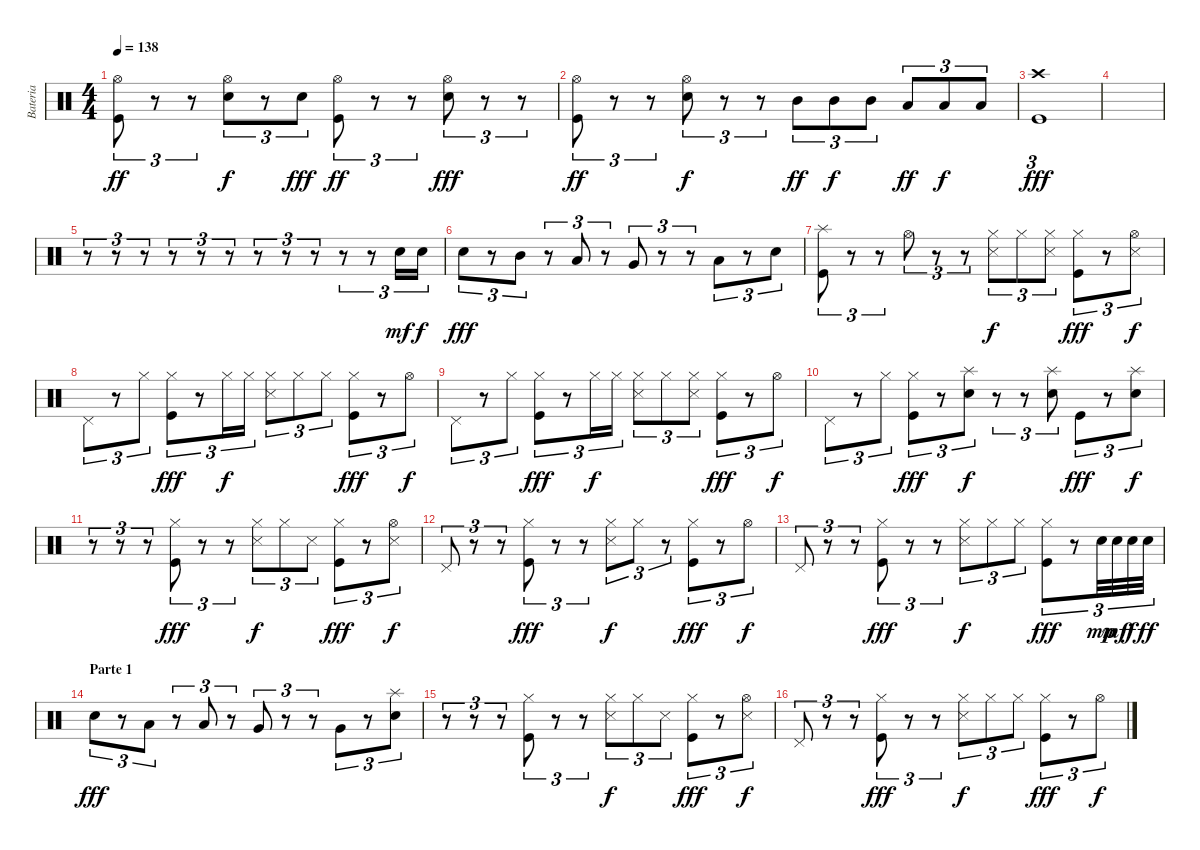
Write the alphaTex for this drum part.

\track ("Bateria" "Bateria") {instrument percussion}
\staff {score}
\articulation defaults
\ts (4 4)
\tempo 138
\clef neutral
\ks c
("Kick (hit)" "Hi-Hat (open)").8{tu (3 2) dy ff} r.8{tu (3 2)} r.8{tu (3 2)} ("Electric Snare (hit)" "Hi-Hat (open)").8{tu (3 2) dy f} r.8{tu (3 2)} "Electric Snare (hit)".8{tu (3 2) dy fff} ("Kick (hit)" "Hi-Hat (open)").8{tu (3 2) dy ff} r.8{tu (3 2)} r.8{tu (3 2)} ("Electric Snare (hit)" "Hi-Hat (open)").8{tu (3 2) dy fff} r.8{tu (3 2)} r.8{tu (3 2)} |
("Kick (hit)" "Hi-Hat (open)").8{tu (3 2) dy ff} r.8{tu (3 2)} r.8{tu (3 2)} ("Electric Snare (hit)" "Hi-Hat (open)").8{tu (3 2) dy f} r.8{tu (3 2)} r.8{tu (3 2)} "Mid Tom (hit)".8{tu (3 2) dy ff} "Mid Tom (hit)".8{tu (3 2) dy f} "Mid Tom (hit)".8{tu (3 2)} "Low Tom (hit)".8{tu (3 2) dy ff} "Low Tom (hit)".8{tu (3 2) dy f} "Low Tom (hit)".8{tu (3 2)} |
("Kick (hit)" "Crash high (hit)").1{tu (3 2) dy fff} |
|
r.8{tu (3 2)} r.8{tu (3 2)} r.8{tu (3 2)} r.8{tu (3 2)} r.8{tu (3 2)} r.8{tu (3 2)} r.8{tu (3 2)} r.8{tu (3 2)} r.8{tu (3 2)} r.8{tu (3 2)} r.8{tu (3 2)} "Electric Snare (hit)".16{tu (3 2) dy mf} "Electric Snare (hit)".16{tu (3 2) dy f} |
"Electric Snare (hit)".8{tu (3 2) dy fff} r.8{tu (3 2)} "Mid Tom (hit)".8{tu (3 2)} r.8{tu (3 2)} "Low Tom (hit)".8{tu (3 2)} r.8{tu (3 2)} "Very Low Tom (hit)".8{tu (3 2)} r.8{tu (3 2)} r.8{tu (3 2)} "Low Floor Tom (hit)".8{tu (3 2)} r.8{tu (3 2)} "Electric Snare (hit)".8{tu (3 2)} |
("Kick (hit)" "Splash (hit)").8{tu (3 2)} r.8{tu (3 2)} r.8{tu (3 2)} "Hi-Hat (open)".8{tu (3 2)} r.8{tu (3 2)} r.8{tu (3 2)} ("Snare (side stick) 3" "Hi-Hat (closed)").8{tu (3 2) dy f} "Hi-Hat (closed)".8{tu (3 2)} ("Snare (side stick) 3" "Hi-Hat (closed)").8{tu (3 2)} ("Kick (hit)" "Hi-Hat (closed)").8{tu (3 2) dy fff} r.8{tu (3 2)} ("Snare (side stick) 3" "Hi-Hat (open)").8{tu (3 2) dy f} |
"Pedal Hi-Hat (hit)".8{tu (3 2)} r.8{tu (3 2)} "Hi-Hat (closed)".8{tu (3 2)} ("Kick (hit)" "Hi-Hat (closed)").8{tu (3 2) dy fff} r.8{tu (3 2)} "Hi-Hat (closed)".16{tu (3 2) dy f} "Hi-Hat (closed)".16{tu (3 2)} ("Snare (side stick) 3" "Hi-Hat (closed)").8{tu (3 2)} "Hi-Hat (closed)".8{tu (3 2)} "Hi-Hat (closed)".8{tu (3 2)} ("Kick (hit)" "Hi-Hat (closed)").8{tu (3 2) dy fff} r.8{tu (3 2)} "Hi-Hat (open)".8{tu (3 2) dy f} |
"Pedal Hi-Hat (hit)".8{tu (3 2)} r.8{tu (3 2)} "Hi-Hat (closed)".8{tu (3 2)} ("Kick (hit)" "Hi-Hat (closed)").8{tu (3 2) dy fff} r.8{tu (3 2)} "Hi-Hat (closed)".16{tu (3 2) dy f} "Hi-Hat (closed)".16{tu (3 2)} ("Snare (side stick) 3" "Hi-Hat (closed)").8{tu (3 2)} "Hi-Hat (closed)".8{tu (3 2)} ("Snare (side stick) 3" "Hi-Hat (closed)").8{tu (3 2)} ("Kick (hit)" "Hi-Hat (closed)").8{tu (3 2) dy fff} r.8{tu (3 2)} "Hi-Hat (open)".8{tu (3 2) dy f} |
"Pedal Hi-Hat (hit)".8{tu (3 2)} r.8{tu (3 2)} "Hi-Hat (closed)".8{tu (3 2)} ("Kick (hit)" "Hi-Hat (closed)").8{tu (3 2) dy fff} r.8{tu (3 2)} ("Electric Snare (hit)" "Splash (hit)").8{tu (3 2) dy f} r.8{tu (3 2)} r.8{tu (3 2)} ("Electric Snare (hit)" "Splash (hit)").8{tu (3 2)} "Kick (hit)".8{tu (3 2) dy fff} r.8{tu (3 2)} ("Electric Snare (hit)" "Splash (hit)").8{tu (3 2) dy f} |
r.8{tu (3 2)} r.8{tu (3 2)} r.8{tu (3 2)} ("Kick (hit)" "Hi-Hat (closed)").8{tu (3 2) dy fff} r.8{tu (3 2)} r.8{tu (3 2)} ("Snare (side stick) 3" "Hi-Hat (closed)").8{tu (3 2) dy f} "Hi-Hat (closed)".8{tu (3 2)} "Snare (side stick) 3".8{tu (3 2)} ("Kick (hit)" "Hi-Hat (closed)").8{tu (3 2) dy fff} r.8{tu (3 2)} ("Snare (side stick) 3" "Hi-Hat (open)").8{tu (3 2) dy f} |
"Pedal Hi-Hat (hit)".8{tu (3 2)} r.8{tu (3 2)} r.8{tu (3 2)} ("Kick (hit)" "Hi-Hat (closed)").8{tu (3 2) dy fff} r.8{tu (3 2)} r.8{tu (3 2)} ("Snare (side stick) 3" "Hi-Hat (closed)").8{tu (3 2) dy f} "Hi-Hat (closed)".8{tu (3 2)} r.8{tu (3 2)} ("Kick (hit)" "Hi-Hat (closed)").8{tu (3 2) dy fff} r.8{tu (3 2)} "Hi-Hat (open)".8{tu (3 2) dy f} |
"Pedal Hi-Hat (hit)".8{tu (3 2)} r.8{tu (3 2)} r.8{tu (3 2)} ("Kick (hit)" "Hi-Hat (closed)").8{tu (3 2) dy fff} r.8{tu (3 2)} r.8{tu (3 2)} ("Snare (side stick) 3" "Hi-Hat (closed)").8{tu (3 2) dy f} "Hi-Hat (closed)".8{tu (3 2)} "Hi-Hat (closed)".8{tu (3 2)} ("Kick (hit)" "Hi-Hat (closed)").8{tu (3 2) dy fff} r.8{tu (3 2)} "Electric Snare (hit)".32{tu (3 2) dy mp} "Electric Snare (hit)".32{tu (3 2) dy mf} "Electric Snare (hit)".32{tu (3 2) dy f} "Electric Snare (hit)".32{tu (3 2) dy ff} |
\section ("" "Parte 1")
"Electric Snare (hit)".8{tu (3 2) dy fff} r.8{tu (3 2)} "Low Tom (hit)".8{tu (3 2)} r.8{tu (3 2)} "Low Tom (hit)".8{tu (3 2)} r.8{tu (3 2)} "Very Low Tom (hit)".8{tu (3 2)} r.8{tu (3 2)} r.8{tu (3 2)} "Very Low Tom (hit)".8{tu (3 2)} r.8{tu (3 2)} ("Electric Snare (hit)" "Splash (hit)").8{tu (3 2)} |
r.8{tu (3 2)} r.8{tu (3 2)} r.8{tu (3 2)} ("Kick (hit)" "Hi-Hat (closed)").8{tu (3 2)} r.8{tu (3 2)} r.8{tu (3 2)} ("Snare (side stick) 3" "Hi-Hat (closed)").8{tu (3 2) dy f} "Hi-Hat (closed)".8{tu (3 2)} "Snare (side stick) 3".8{tu (3 2)} ("Kick (hit)" "Hi-Hat (closed)").8{tu (3 2) dy fff} r.8{tu (3 2)} ("Snare (side stick) 3" "Hi-Hat (open)").8{tu (3 2) dy f} |
"Pedal Hi-Hat (hit)".8{tu (3 2)} r.8{tu (3 2)} r.8{tu (3 2)} ("Kick (hit)" "Hi-Hat (closed)").8{tu (3 2) dy fff} r.8{tu (3 2)} r.8{tu (3 2)} ("Snare (side stick) 3" "Hi-Hat (closed)").8{tu (3 2) dy f} "Hi-Hat (closed)".8{tu (3 2)} "Hi-Hat (closed)".8{tu (3 2)} ("Kick (hit)" "Hi-Hat (closed)").8{tu (3 2) dy fff} r.8{tu (3 2)} "Hi-Hat (open)".8{tu (3 2) dy f}
